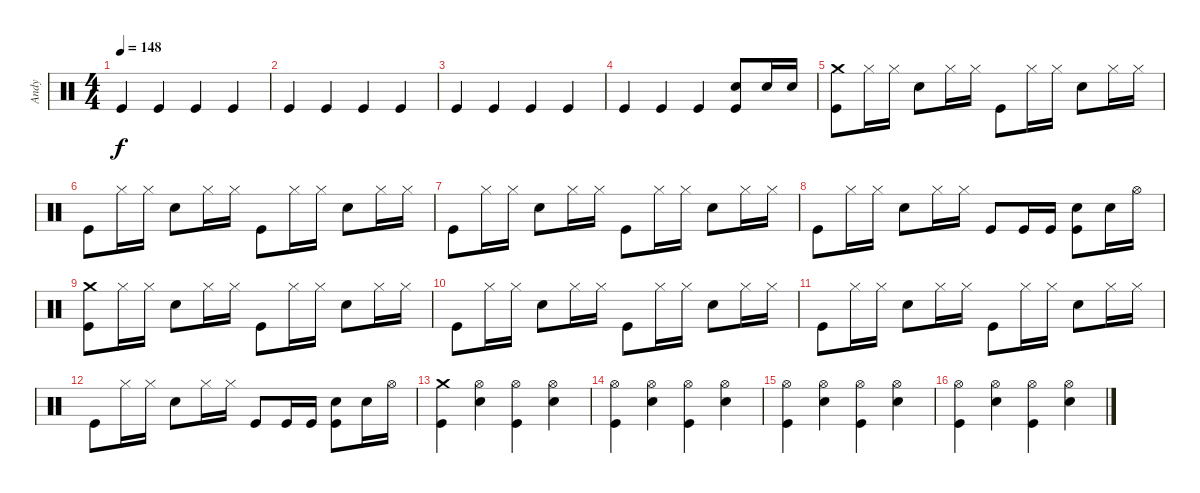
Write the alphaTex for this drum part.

\track ("Andy" "Andy") {instrument percussion}
\staff {score}
\articulation defaults
\ts (4 4)
\tempo 148
\clef neutral
\ks c "Kick (hit)".4{dy f} "Kick (hit)".4 "Kick (hit)".4 "Kick (hit)".4
|
"Kick (hit)".4 "Kick (hit)".4 "Kick (hit)".4 "Kick (hit)".4 |
"Kick (hit)".4 "Kick (hit)".4 "Kick (hit)".4 "Kick (hit)".4 |
"Kick (hit)".4 "Kick (hit)".4 "Kick (hit)".4 ("Snare (hit) 2" "Kick (hit)").8 "Snare (hit) 2".16 "Snare (hit) 2".16 |
("Kick (hit)" "Crash medium (hit)").8 "Hi-Hat (closed)".16 "Hi-Hat (closed)".16 "Snare (hit) 2".8 "Hi-Hat (closed)".16 "Hi-Hat (closed)".16 "Kick (hit)".8 "Hi-Hat (closed)".16 "Hi-Hat (closed)".16 "Snare (hit) 2".8 "Hi-Hat (closed)".16 "Hi-Hat (closed)".16 |
"Kick (hit)".8 "Hi-Hat (closed)".16 "Hi-Hat (closed)".16 "Snare (hit) 2".8 "Hi-Hat (closed)".16 "Hi-Hat (closed)".16 "Kick (hit)".8 "Hi-Hat (closed)".16 "Hi-Hat (closed)".16 "Snare (hit) 2".8 "Hi-Hat (closed)".16 "Hi-Hat (closed)".16 |
"Kick (hit)".8 "Hi-Hat (closed)".16 "Hi-Hat (closed)".16 "Snare (hit) 2".8 "Hi-Hat (closed)".16 "Hi-Hat (closed)".16 "Kick (hit)".8 "Hi-Hat (closed)".16 "Hi-Hat (closed)".16 "Snare (hit) 2".8 "Hi-Hat (closed)".16 "Hi-Hat (closed)".16 |
"Kick (hit)".8 "Hi-Hat (closed)".16 "Hi-Hat (closed)".16 "Snare (hit) 2".8 "Hi-Hat (closed)".16 "Hi-Hat (closed)".16 "Kick (hit)".8 "Kick (hit)".16 "Kick (hit)".16 ("Snare (hit) 2" "Kick (hit)").8 "Snare (hit) 2".16 "Hi-Hat (open)".16 |
("Kick (hit)" "Crash medium (hit)").8 "Hi-Hat (closed)".16 "Hi-Hat (closed)".16 "Snare (hit) 2".8 "Hi-Hat (closed)".16 "Hi-Hat (closed)".16 "Kick (hit)".8 "Hi-Hat (closed)".16 "Hi-Hat (closed)".16 "Snare (hit) 2".8 "Hi-Hat (closed)".16 "Hi-Hat (closed)".16 |
"Kick (hit)".8 "Hi-Hat (closed)".16 "Hi-Hat (closed)".16 "Snare (hit) 2".8 "Hi-Hat (closed)".16 "Hi-Hat (closed)".16 "Kick (hit)".8 "Hi-Hat (closed)".16 "Hi-Hat (closed)".16 "Snare (hit) 2".8 "Hi-Hat (closed)".16 "Hi-Hat (closed)".16 |
"Kick (hit)".8 "Hi-Hat (closed)".16 "Hi-Hat (closed)".16 "Snare (hit) 2".8 "Hi-Hat (closed)".16 "Hi-Hat (closed)".16 "Kick (hit)".8 "Hi-Hat (closed)".16 "Hi-Hat (closed)".16 "Snare (hit) 2".8 "Hi-Hat (closed)".16 "Hi-Hat (closed)".16 |
"Kick (hit)".8 "Hi-Hat (closed)".16 "Hi-Hat (closed)".16 "Snare (hit) 2".8 "Hi-Hat (closed)".16 "Hi-Hat (closed)".16 "Kick (hit)".8 "Kick (hit)".16 "Kick (hit)".16 ("Snare (hit) 2" "Kick (hit)").8 "Snare (hit) 2".16 "Hi-Hat (open)".16 |
("Kick (hit)" "Crash medium (hit)").4 ("Hi-Hat (open)" "Snare (hit) 2").4 ("Hi-Hat (open)" "Kick (hit)").4 ("Hi-Hat (open)" "Snare (hit) 2").4 |
("Kick (hit)" "Hi-Hat (open)").4 ("Snare (hit) 2" "Hi-Hat (open)").4 ("Kick (hit)" "Hi-Hat (open)").4 ("Snare (hit) 2" "Hi-Hat (open)").4 |
("Kick (hit)" "Hi-Hat (open)").4 ("Snare (hit) 2" "Hi-Hat (open)").4 ("Kick (hit)" "Hi-Hat (open)").4 ("Snare (hit) 2" "Hi-Hat (open)").4 |
("Kick (hit)" "Hi-Hat (open)").4 ("Snare (hit) 2" "Hi-Hat (open)").4 ("Kick (hit)" "Hi-Hat (open)").4 ("Snare (hit) 2" "Hi-Hat (open)").4
